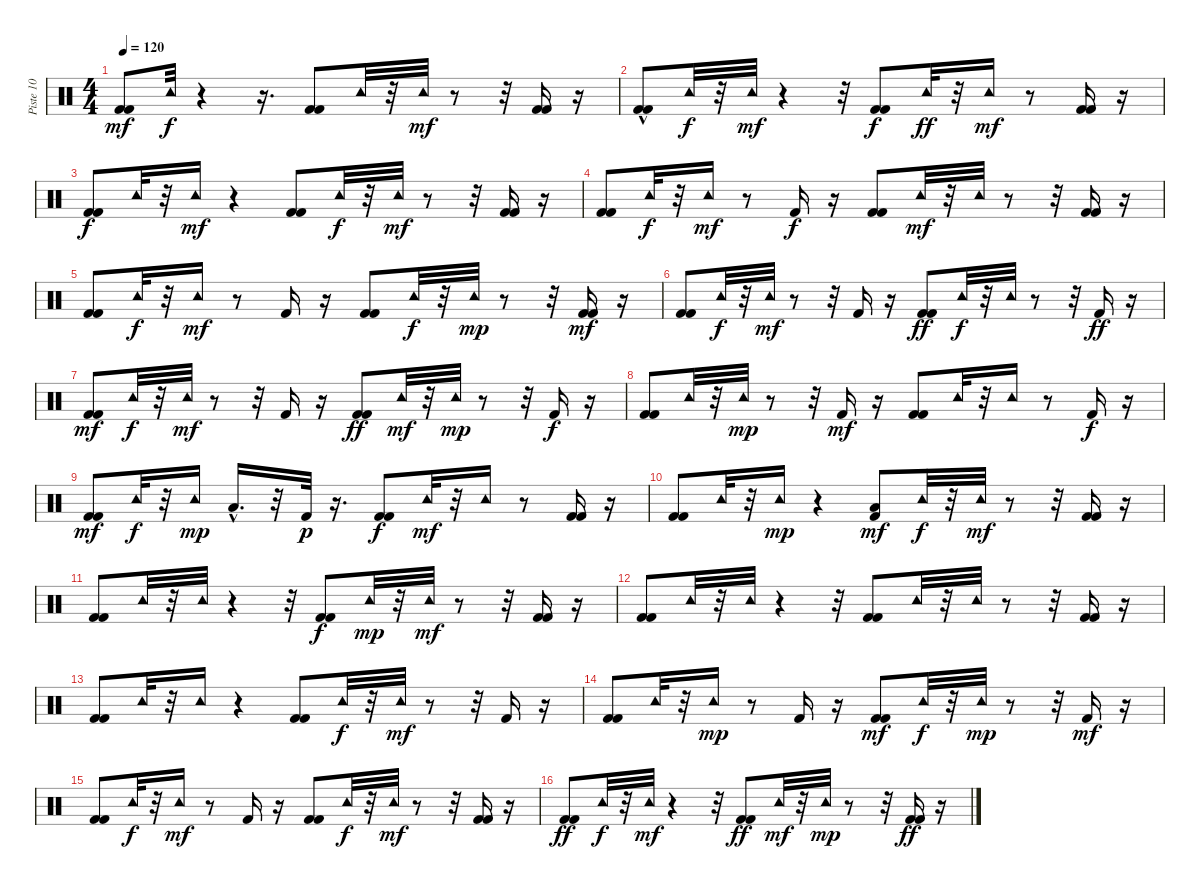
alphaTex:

\track ("Piste 10" "Piste 10") {instrument percussion}
\staff {score}
\articulation defaults
\ts (4 4)
\tempo 120
\clef neutral
\ks c
("Kick (hit) 2" "Kick (hit) 2").8{dy mf} "Tambourine (hit)".32{dy f} r.4 r.16{d} ("Kick (hit) 2" "Kick (hit) 2").8 "Tambourine (hit)".32 r.32 "Tambourine (hit)".32{dy mf} r.8 r.32 ("Kick (hit) 2" "Kick (hit) 2").16 r.16 |
("Kick (hit) 2"{hac} "Kick (hit) 2"{hac}).8 "Tambourine (hit)".32{dy f} r.32 "Tambourine (hit)".32{dy mf} r.4 r.32 ("Kick (hit) 2" "Kick (hit) 2").8{dy f} "Tambourine (hit)".32{dy ff} r.32 "Tambourine (hit)".16{dy mf} r.8 ("Kick (hit) 2" "Kick (hit) 2").16 r.16 |
("Kick (hit) 2" "Kick (hit) 2").8{dy f} "Tambourine (hit)".32 r.32 "Tambourine (hit)".16{dy mf} r.4 ("Kick (hit) 2" "Kick (hit) 2").8 "Tambourine (hit)".32{dy f} r.32 "Tambourine (hit)".32{dy mf} r.8 r.32 ("Kick (hit) 2" "Kick (hit) 2").16 r.16 |
("Kick (hit) 2" "Kick (hit) 2").8 "Tambourine (hit)".32{dy f} r.32 "Tambourine (hit)".16{dy mf} r.8 "Kick (hit) 2".16{dy f} r.16 ("Kick (hit) 2" "Kick (hit) 2").8 "Tambourine (hit)".32{dy mf} r.32 "Tambourine (hit)".32 r.8 r.32 ("Kick (hit) 2" "Kick (hit) 2").16 r.16 |
("Kick (hit) 2" "Kick (hit) 2").8 "Tambourine (hit)".32{dy f} r.32 "Tambourine (hit)".16{dy mf} r.8 "Kick (hit) 2".16 r.16 ("Kick (hit) 2" "Kick (hit) 2").8 "Tambourine (hit)".32{dy f} r.32 "Tambourine (hit)".32{dy mp} r.8 r.32 ("Kick (hit) 2" "Kick (hit) 2").16{dy mf} r.16 |
("Kick (hit) 2" "Kick (hit) 2").8 "Tambourine (hit)".32{dy f} r.32 "Tambourine (hit)".32{dy mf} r.8 r.32 "Kick (hit) 2".16 r.16 ("Kick (hit) 2" "Kick (hit) 2").8{dy ff} "Tambourine (hit)".32{dy f} r.32 "Tambourine (hit)".32 r.8 r.32 "Kick (hit) 2".16{dy ff} r.16 |
("Kick (hit) 2" "Kick (hit) 2").8{dy mf} "Tambourine (hit)".32{dy f} r.32 "Tambourine (hit)".32{dy mf} r.8 r.32 "Kick (hit) 2".16 r.16 ("Kick (hit) 2" "Kick (hit) 2").8{dy ff} "Tambourine (hit)".32{dy mf} r.32 "Tambourine (hit)".32{dy mp} r.8 r.32 "Kick (hit) 2".16{dy f} r.16 |
("Kick (hit) 2" "Kick (hit) 2").8 "Tambourine (hit)".32 r.32 "Tambourine (hit)".32{dy mp} r.8 r.32 "Kick (hit) 2".16{dy mf} r.16 ("Kick (hit) 2" "Kick (hit) 2").8 "Tambourine (hit)".32 r.32 "Tambourine (hit)".16 r.8 "Kick (hit) 2".16{dy f} r.16 |
("Kick (hit) 2" "Kick (hit) 2").8{dy mf} "Tambourine (hit)".32{dy f} r.32 "Tambourine (hit)".16{dy mp} "Low Tom (hit)"{hac}.16{d} r.32 "Kick (hit) 2".32{dy p} r.16{d} ("Kick (hit) 2" "Kick (hit) 2").8{dy f} "Tambourine (hit)".32{dy mf} r.32 "Tambourine (hit)".16 r.8 ("Kick (hit) 2" "Kick (hit) 2").16 r.16 |
("Kick (hit) 2" "Kick (hit) 2").8 "Tambourine (hit)".32 r.32 "Tambourine (hit)".16{dy mp} r.4 ("Kick (hit) 2" "Low Tom (hit)").8{dy mf} "Tambourine (hit)".32{dy f} r.32 "Tambourine (hit)".32{dy mf} r.8 r.32 ("Kick (hit) 2" "Kick (hit) 2").16 r.16 |
("Kick (hit) 2" "Kick (hit) 2").8 "Tambourine (hit)".32 r.32 "Tambourine (hit)".32 r.4 r.32 ("Kick (hit) 2" "Kick (hit) 2").8{dy f} "Tambourine (hit)".32{dy mp} r.32 "Tambourine (hit)".32{dy mf} r.8 r.32 ("Kick (hit) 2" "Kick (hit) 2").16 r.16 |
("Kick (hit) 2" "Kick (hit) 2").8 "Tambourine (hit)".32 r.32 "Tambourine (hit)".32 r.4 r.32 ("Kick (hit) 2" "Kick (hit) 2").8 "Tambourine (hit)".32 r.32 "Tambourine (hit)".32 r.8 r.32 ("Kick (hit) 2" "Kick (hit) 2").16 r.16 |
("Kick (hit) 2" "Kick (hit) 2").8 "Tambourine (hit)".32 r.32 "Tambourine (hit)".16 r.4 ("Kick (hit) 2" "Kick (hit) 2").8 "Tambourine (hit)".32{dy f} r.32 "Tambourine (hit)".32{dy mf} r.8 r.32 "Kick (hit) 2".16 r.16 |
("Kick (hit) 2" "Kick (hit) 2").8 "Tambourine (hit)".32 r.32 "Tambourine (hit)".16{dy mp} r.8 "Kick (hit) 2".16 r.16 ("Kick (hit) 2" "Kick (hit) 2").8{dy mf} "Tambourine (hit)".32{dy f} r.32 "Tambourine (hit)".32{dy mp} r.8 r.32 "Kick (hit) 2".16{dy mf} r.16 |
("Kick (hit) 2" "Kick (hit) 2").8 "Tambourine (hit)".32{dy f} r.32 "Tambourine (hit)".16{dy mf} r.8 "Kick (hit) 2".16 r.16 ("Kick (hit) 2" "Kick (hit) 2").8 "Tambourine (hit)".32{dy f} r.32 "Tambourine (hit)".32{dy mf} r.8 r.32 ("Kick (hit) 2" "Kick (hit) 2").16 r.16 |
("Kick (hit) 2" "Kick (hit) 2").8{dy ff} "Tambourine (hit)".32{dy f} r.32 "Tambourine (hit)".32{dy mf} r.4 r.32 ("Kick (hit) 2" "Kick (hit) 2").8{dy ff} "Tambourine (hit)".32{dy mf} r.32 "Tambourine (hit)".32{dy mp} r.8 r.32 ("Kick (hit) 2" "Kick (hit) 2").16{dy ff} r.16
